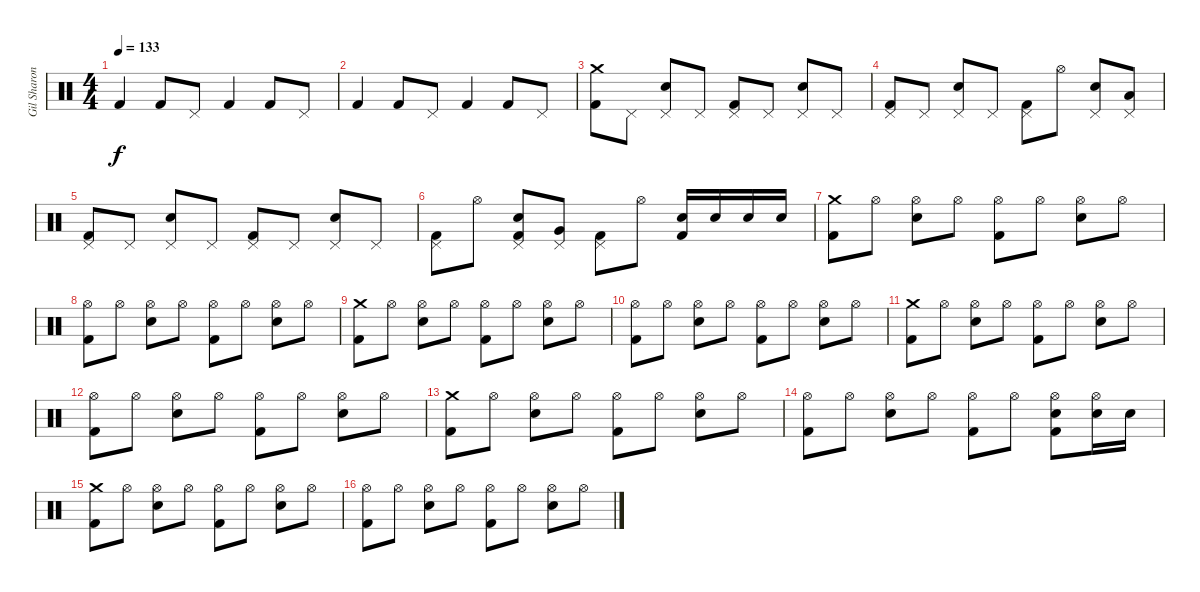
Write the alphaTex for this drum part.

\track ("Gil Sharone" "Gil Sharon") {instrument percussion}
\staff {score}
\articulation defaults
\ts (4 4)
\tempo 133
\clef neutral
\ks c "Kick (hit) 2".4{dy f} "Kick (hit) 2".8 "Pedal Hi-Hat (hit)".8 "Kick (hit) 2".4 "Kick (hit) 2".8 "Pedal Hi-Hat (hit)".8
|
"Kick (hit) 2".4 "Kick (hit) 2".8 "Pedal Hi-Hat (hit)".8 "Kick (hit) 2".4 "Kick (hit) 2".8 "Pedal Hi-Hat (hit)".8 |
("Crash medium (hit)" "Kick (hit) 2").8 "Pedal Hi-Hat (hit)".8 ("Pedal Hi-Hat (hit)" "Electric Snare (hit)").8 "Pedal Hi-Hat (hit)".8 ("Pedal Hi-Hat (hit)" "Kick (hit) 2").8 "Pedal Hi-Hat (hit)".8 ("Pedal Hi-Hat (hit)" "Electric Snare (hit)").8 "Pedal Hi-Hat (hit)".8 |
("Pedal Hi-Hat (hit)" "Kick (hit) 2").8 "Pedal Hi-Hat (hit)".8 ("Pedal Hi-Hat (hit)" "Electric Snare (hit)").8 "Pedal Hi-Hat (hit)".8 ("Pedal Hi-Hat (hit)" "Kick (hit) 2").8 "Hi-Hat (open)".8 ("Pedal Hi-Hat (hit)" "Electric Snare (hit)").8 ("Pedal Hi-Hat (hit)" "Low Floor Tom (hit)").8 |
("Pedal Hi-Hat (hit)" "Kick (hit) 2").8 "Pedal Hi-Hat (hit)".8 ("Pedal Hi-Hat (hit)" "Electric Snare (hit)").8 "Pedal Hi-Hat (hit)".8 ("Pedal Hi-Hat (hit)" "Kick (hit) 2").8 "Pedal Hi-Hat (hit)".8 ("Pedal Hi-Hat (hit)" "Electric Snare (hit)").8 "Pedal Hi-Hat (hit)".8 |
("Pedal Hi-Hat (hit)" "Kick (hit) 2").8 "Hi-Hat (open)".8 ("Pedal Hi-Hat (hit)" "Electric Snare (hit)" "Kick (hit) 2").8 ("Pedal Hi-Hat (hit)" "Very Low Tom (hit)").8 ("Pedal Hi-Hat (hit)" "Kick (hit) 2").8 "Hi-Hat (open)".8 ("Electric Snare (hit)" "Kick (hit) 2").16 "Electric Snare (hit)".16 "Electric Snare (hit)".16 "Electric Snare (hit)".16 |
("Crash medium (hit)" "Kick (hit) 2").8 "Hi-Hat (open)".8 ("Hi-Hat (open)" "Electric Snare (hit)").8 "Hi-Hat (open)".8 ("Hi-Hat (open)" "Kick (hit) 2").8 "Hi-Hat (open)".8 ("Hi-Hat (open)" "Electric Snare (hit)").8 "Hi-Hat (open)".8 |
("Hi-Hat (open)" "Kick (hit) 2").8 "Hi-Hat (open)".8 ("Hi-Hat (open)" "Electric Snare (hit)").8 "Hi-Hat (open)".8 ("Hi-Hat (open)" "Kick (hit) 2").8 "Hi-Hat (open)".8 ("Hi-Hat (open)" "Electric Snare (hit)").8 "Hi-Hat (open)".8 |
("Crash medium (hit)" "Kick (hit) 2").8 "Hi-Hat (open)".8 ("Hi-Hat (open)" "Electric Snare (hit)").8 "Hi-Hat (open)".8 ("Hi-Hat (open)" "Kick (hit) 2").8 "Hi-Hat (open)".8 ("Hi-Hat (open)" "Electric Snare (hit)").8 "Hi-Hat (open)".8 |
("Hi-Hat (open)" "Kick (hit) 2").8 "Hi-Hat (open)".8 ("Hi-Hat (open)" "Electric Snare (hit)").8 "Hi-Hat (open)".8 ("Hi-Hat (open)" "Kick (hit) 2").8 "Hi-Hat (open)".8 ("Hi-Hat (open)" "Electric Snare (hit)").8 "Hi-Hat (open)".8 |
("Crash medium (hit)" "Kick (hit) 2").8 "Hi-Hat (open)".8 ("Hi-Hat (open)" "Electric Snare (hit)").8 "Hi-Hat (open)".8 ("Hi-Hat (open)" "Kick (hit) 2").8 "Hi-Hat (open)".8 ("Hi-Hat (open)" "Electric Snare (hit)").8 "Hi-Hat (open)".8 |
("Hi-Hat (open)" "Kick (hit) 2").8 "Hi-Hat (open)".8 ("Hi-Hat (open)" "Electric Snare (hit)").8 "Hi-Hat (open)".8 ("Hi-Hat (open)" "Kick (hit) 2").8 "Hi-Hat (open)".8 ("Hi-Hat (open)" "Electric Snare (hit)").8 "Hi-Hat (open)".8 |
("Crash medium (hit)" "Kick (hit) 2").8 "Hi-Hat (open)".8 ("Hi-Hat (open)" "Electric Snare (hit)").8 "Hi-Hat (open)".8 ("Hi-Hat (open)" "Kick (hit) 2").8 "Hi-Hat (open)".8 ("Hi-Hat (open)" "Electric Snare (hit)").8 "Hi-Hat (open)".8 |
("Hi-Hat (open)" "Kick (hit) 2").8 "Hi-Hat (open)".8 ("Hi-Hat (open)" "Electric Snare (hit)").8 "Hi-Hat (open)".8 ("Hi-Hat (open)" "Kick (hit) 2").8 "Hi-Hat (open)".8 ("Hi-Hat (open)" "Electric Snare (hit)" "Kick (hit) 2").8 ("Hi-Hat (open)" "Electric Snare (hit)").16 "Electric Snare (hit)".16 |
("Crash medium (hit)" "Kick (hit) 2").8 "Hi-Hat (open)".8 ("Hi-Hat (open)" "Electric Snare (hit)").8 "Hi-Hat (open)".8 ("Hi-Hat (open)" "Kick (hit) 2").8 "Hi-Hat (open)".8 ("Hi-Hat (open)" "Electric Snare (hit)").8 "Hi-Hat (open)".8 |
("Hi-Hat (open)" "Kick (hit) 2").8 "Hi-Hat (open)".8 ("Hi-Hat (open)" "Electric Snare (hit)").8 "Hi-Hat (open)".8 ("Hi-Hat (open)" "Kick (hit) 2").8 "Hi-Hat (open)".8 ("Hi-Hat (open)" "Electric Snare (hit)").8 "Hi-Hat (open)".8
